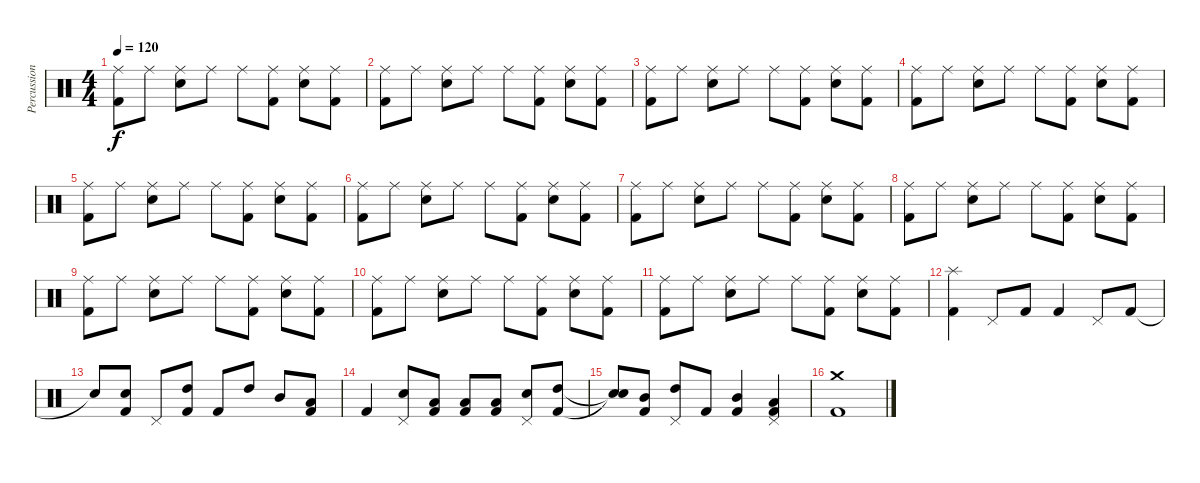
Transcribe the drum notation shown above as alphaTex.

\track ("Percussion" "Percussion") {instrument percussion}
\staff {score}
\articulation defaults
\ts (4 4)
\tempo 120
\clef neutral
\ks c
("Ride (middle)" "Kick (hit) 2").8{dy f} "Ride (middle)".8 ("Ride (middle)" "Snare (hit) 2").8 "Ride (middle)".8 "Ride (middle)".8 ("Ride (middle)" "Kick (hit) 2").8 ("Ride (middle)" "Snare (hit) 2").8 ("Ride (middle)" "Kick (hit) 2").8 |
("Ride (middle)" "Kick (hit) 2").8 "Ride (middle)".8 ("Ride (middle)" "Snare (hit) 2").8 "Ride (middle)".8 "Ride (middle)".8 ("Ride (middle)" "Kick (hit) 2").8 ("Ride (middle)" "Snare (hit) 2").8 ("Ride (middle)" "Kick (hit) 2").8 |
("Ride (middle)" "Kick (hit) 2").8 "Ride (middle)".8 ("Ride (middle)" "Snare (hit) 2").8 "Ride (middle)".8 "Ride (middle)".8 ("Ride (middle)" "Kick (hit) 2").8 ("Ride (middle)" "Snare (hit) 2").8 ("Ride (middle)" "Kick (hit) 2").8 |
("Ride (middle)" "Kick (hit) 2").8 "Ride (middle)".8 ("Ride (middle)" "Snare (hit) 2").8 "Ride (middle)".8 "Ride (middle)".8 ("Ride (middle)" "Kick (hit) 2").8 ("Ride (middle)" "Snare (hit) 2").8 ("Ride (middle)" "Kick (hit) 2").8 |
("Ride (middle)" "Kick (hit) 2").8 "Ride (middle)".8 ("Ride (middle)" "Snare (hit) 2").8 "Ride (middle)".8 "Ride (middle)".8 ("Ride (middle)" "Kick (hit) 2").8 ("Ride (middle)" "Snare (hit) 2").8 ("Ride (middle)" "Kick (hit) 2").8 |
("Ride (middle)" "Kick (hit) 2").8 "Ride (middle)".8 ("Ride (middle)" "Snare (hit) 2").8 "Ride (middle)".8 "Ride (middle)".8 ("Ride (middle)" "Kick (hit) 2").8 ("Ride (middle)" "Snare (hit) 2").8 ("Ride (middle)" "Kick (hit) 2").8 |
("Ride (middle)" "Kick (hit) 2").8 "Ride (middle)".8 ("Ride (middle)" "Snare (hit) 2").8 "Ride (middle)".8 "Ride (middle)".8 ("Ride (middle)" "Kick (hit) 2").8 ("Ride (middle)" "Snare (hit) 2").8 ("Ride (middle)" "Kick (hit) 2").8 |
("Ride (middle)" "Kick (hit) 2").8 "Ride (middle)".8 ("Ride (middle)" "Snare (hit) 2").8 "Ride (middle)".8 "Ride (middle)".8 ("Ride (middle)" "Kick (hit) 2").8 ("Ride (middle)" "Snare (hit) 2").8 ("Ride (middle)" "Kick (hit) 2").8 |
("Ride (middle)" "Kick (hit) 2").8 "Ride (middle)".8 ("Ride (middle)" "Snare (hit) 2").8 "Ride (middle)".8 "Ride (middle)".8 ("Ride (middle)" "Kick (hit) 2").8 ("Ride (middle)" "Snare (hit) 2").8 ("Ride (middle)" "Kick (hit) 2").8 |
("Ride (middle)" "Kick (hit) 2").8 "Ride (middle)".8 ("Ride (middle)" "Snare (hit) 2").8 "Ride (middle)".8 "Ride (middle)".8 ("Ride (middle)" "Kick (hit) 2").8 ("Ride (middle)" "Snare (hit) 2").8 ("Ride (middle)" "Kick (hit) 2").8 |
("Ride (middle)" "Kick (hit) 2").8 "Ride (middle)".8 ("Ride (middle)" "Snare (hit) 2").8 "Ride (middle)".8 "Ride (middle)".8 ("Ride (middle)" "Kick (hit) 2").8 ("Ride (middle)" "Snare (hit) 2").8 ("Ride (middle)" "Kick (hit) 2").8 |
("Splash (hit)" "Kick (hit) 2").4 "Pedal Hi-Hat (hit)".8 "Kick (hit) 2".8 "Kick (hit) 2".4 "Pedal Hi-Hat (hit)".8 "Kick (hit) 2".8 |
"Snare (hit)"{t}.8 ("Snare (hit) 2" "Kick (hit) 2").8 "Pedal Hi-Hat (hit)".8 ("High Tom (hit)" "Kick (hit) 2").8 "Kick (hit) 2".8 "High Tom (hit)".8 "Mid Tom (hit)".8 ("Low Tom (hit)" "Kick (hit) 2").8 |
"Kick (hit) 2".4 ("Pedal Hi-Hat (hit)" "Snare (hit) 2").8 ("Low Tom (hit)" "Kick (hit) 2").8 ("Low Tom (hit)" "Kick (hit) 2").8 ("Low Tom (hit)" "Kick (hit) 2").8 ("Pedal Hi-Hat (hit)" "Snare (hit) 2").8 ("High Tom (hit)" "Kick (hit) 2").8 |
("Snare (hit)"{t} "Snare (hit)"{t}).8 ("Mid Tom (hit)" "Kick (hit) 2").8 ("Pedal Hi-Hat (hit)" "High Tom (hit)").8 "Kick (hit) 2".8 ("Mid Tom (hit)" "Kick (hit) 2").4 ("Pedal Hi-Hat (hit)" "Low Tom (hit)" "Kick (hit) 2").4 |
("Crash medium (hit)" "Kick (hit) 2").1
